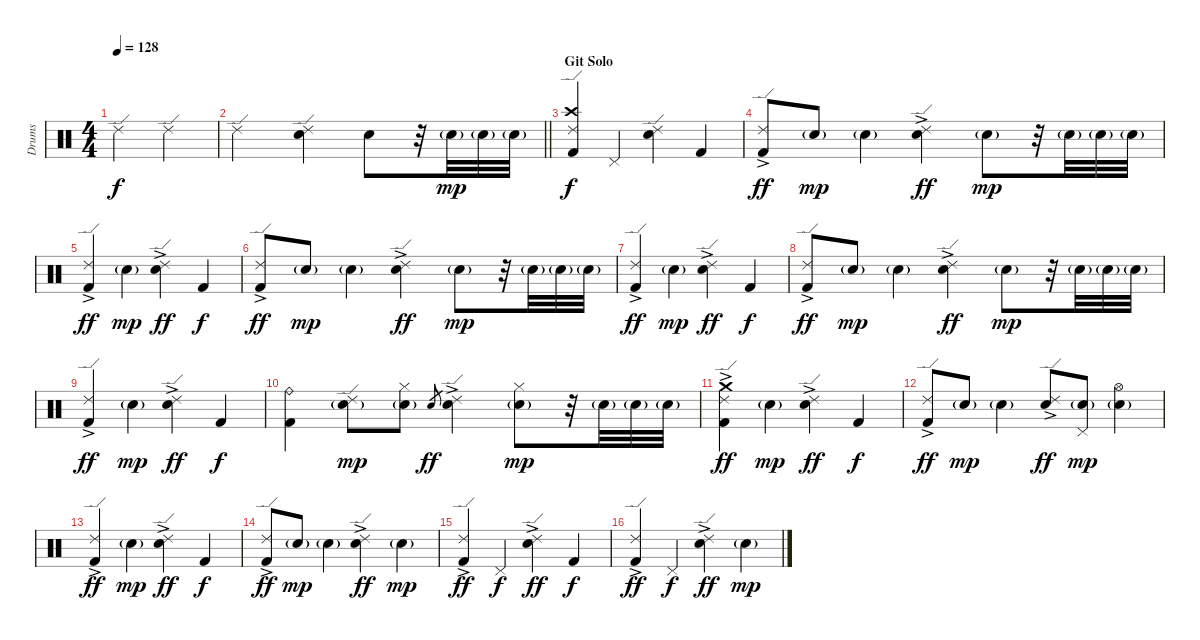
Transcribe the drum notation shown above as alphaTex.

\track ("Drums" "Drums") {instrument percussion}
\staff {score}
\articulation defaults
\ts (4 4)
\tempo 128
\clef neutral
\ks c "Ride (edge) 2".2{dy f} "Ride (edge) 2".2
|
\barLineRight lightlight "Ride (edge) 2".2
("Snare (hit) 2" "Ride (edge) 2").4 "Snare (hit) 2".8 r.32 "Snare (hit) 2"{g}.32{dy mp} "Snare (hit) 2"{g}.32 "Snare (hit) 2"{g}.32 |
\section ("" "Git Solo")
("Crash high (hit)" "Kick (hit) 2" "Ride (edge) 2").4{dy f} "Pedal Hi-Hat (hit)".4 ("Snare (hit) 2" "Ride (edge) 2").4 "Kick (hit) 2".4 |
("Kick (hit) 2" "Ride (edge) 2"{ac}).8{dy ff} "Snare (hit) 2"{g}.8{dy mp} "Snare (hit) 2"{g}.4 ("Snare (hit) 2"{ac} "Ride (edge) 2").4{dy ff} "Snare (hit) 2"{g}.8{dy mp} r.32 "Snare (hit) 2"{g}.32 "Snare (hit) 2"{g}.32 "Snare (hit) 2"{g}.32 |
("Kick (hit) 2"{ac} "Ride (edge) 2").4{dy ff} "Snare (hit) 2"{g}.4{dy mp} ("Snare (hit) 2"{ac} "Ride (edge) 2").4{dy ff} "Kick (hit) 2".4{dy f} |
("Kick (hit) 2" "Ride (edge) 2"{ac}).8{dy ff} "Snare (hit) 2"{g}.8{dy mp} "Snare (hit) 2"{g}.4 ("Snare (hit) 2"{ac} "Ride (edge) 2").4{dy ff} "Snare (hit) 2"{g}.8{dy mp} r.32 "Snare (hit) 2"{g}.32 "Snare (hit) 2"{g}.32 "Snare (hit) 2"{g}.32 |
("Kick (hit) 2"{ac} "Ride (edge) 2").4{dy ff} "Snare (hit) 2"{g}.4{dy mp} ("Snare (hit) 2"{ac} "Ride (edge) 2").4{dy ff} "Kick (hit) 2".4{dy f} |
("Kick (hit) 2" "Ride (edge) 2"{ac}).8{dy ff} "Snare (hit) 2"{g}.8{dy mp} "Snare (hit) 2"{g}.4 ("Snare (hit) 2"{ac} "Ride (edge) 2").4{dy ff} "Snare (hit) 2"{g}.8{dy mp} r.32 "Snare (hit) 2"{g}.32 "Snare (hit) 2"{g}.32 "Snare (hit) 2"{g}.32 |
("Kick (hit) 2"{ac} "Ride (edge) 2").4{dy ff} "Snare (hit) 2"{g}.4{dy mp} ("Snare (hit) 2"{ac} "Ride (edge) 2").4{dy ff} "Kick (hit) 2".4{dy f} |
("Ride (bell)" "Kick (hit) 2").4 ("Snare (hit) 2"{g} "Ride (edge) 2").8{dy mp} ("Snare (hit) 2"{g} "Hi-Hat (closed)").8 "Snare (hit) 2".8{gr dy ff} ("Snare (hit) 2"{ac} "Ride (edge) 2").4 ("Snare (hit) 2"{g} "Hi-Hat (closed)").8{dy mp} r.32 "Snare (hit) 2"{g}.32 "Snare (hit) 2"{g}.32 "Snare (hit) 2"{g}.32 |
("Crash medium (hit)" "Kick (hit) 2"{ac} "Ride (edge) 2").4{dy ff} "Snare (hit) 2"{g}.4{dy mp} ("Snare (hit) 2"{ac} "Ride (edge) 2").4{dy ff} "Kick (hit) 2".4{dy f} |
("Kick (hit) 2" "Ride (edge) 2"{ac}).8{dy ff} "Snare (hit) 2"{g}.8{dy mp} "Snare (hit) 2"{g}.4 ("Snare (hit) 2"{ac} "Ride (edge) 2").8{dy ff} ("Snare (hit) 2"{g} "Pedal Hi-Hat (hit)").8{dy mp} ("Snare (hit) 2"{g} "Hi-Hat (open)").4 |
("Kick (hit) 2"{ac} "Ride (edge) 2").4{dy ff} "Snare (hit) 2"{g}.4{dy mp} ("Snare (hit) 2"{ac} "Ride (edge) 2").4{dy ff} "Kick (hit) 2".4{dy f} |
("Kick (hit) 2" "Ride (edge) 2"{ac}).8{dy ff} "Snare (hit) 2"{g}.8{dy mp} "Snare (hit) 2"{g}.4 ("Snare (hit) 2"{ac} "Ride (edge) 2").4{dy ff} "Snare (hit) 2"{g}.4{dy mp} |
("Kick (hit) 2"{ac} "Ride (edge) 2").4{dy ff} "Pedal Hi-Hat (hit)".4{dy f} ("Snare (hit) 2"{ac} "Ride (edge) 2").4{dy ff} "Kick (hit) 2".4{dy f} |
("Kick (hit) 2" "Ride (edge) 2"{ac}).4{dy ff} "Pedal Hi-Hat (hit)".4{dy f} ("Snare (hit) 2"{ac} "Ride (edge) 2").4{dy ff} "Snare (hit) 2"{g}.4{dy mp}
